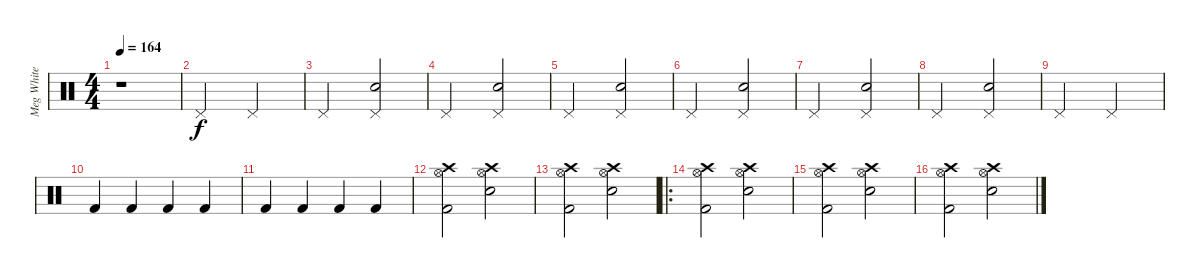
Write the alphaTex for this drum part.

\track ("Meg White" "Meg White") {instrument percussion}
\staff {score}
\articulation defaults
\ts (4 4)
\tempo 164
\clef neutral
\ks c
r.1{dy f} |
"Pedal Hi-Hat (hit)".2 "Pedal Hi-Hat (hit)".2 |
"Pedal Hi-Hat (hit)".2 ("Pedal Hi-Hat (hit)" "Electric Snare (hit)").2 |
"Pedal Hi-Hat (hit)".2 ("Pedal Hi-Hat (hit)" "Electric Snare (hit)").2 |
"Pedal Hi-Hat (hit)".2 ("Pedal Hi-Hat (hit)" "Electric Snare (hit)").2 |
"Pedal Hi-Hat (hit)".2 ("Pedal Hi-Hat (hit)" "Electric Snare (hit)").2 |
"Pedal Hi-Hat (hit)".2 ("Pedal Hi-Hat (hit)" "Electric Snare (hit)").2 |
"Pedal Hi-Hat (hit)".2 ("Pedal Hi-Hat (hit)" "Electric Snare (hit)").2 |
"Pedal Hi-Hat (hit)".2 "Pedal Hi-Hat (hit)".2 |
"Kick (hit) 2".4 "Kick (hit) 2".4 "Kick (hit) 2".4 "Kick (hit) 2".4 |
"Kick (hit) 2".4 "Kick (hit) 2".4 "Kick (hit) 2".4 "Kick (hit) 2".4 |
("Crash high (hit)" "Hi-Hat (open)" "Kick (hit) 2").2 ("Crash high (hit)" "Hi-Hat (open)" "Electric Snare (hit)").2 |
("Crash high (hit)" "Hi-Hat (open)" "Kick (hit) 2").2 ("Crash high (hit)" "Hi-Hat (open)" "Electric Snare (hit)").2 |
\ro
("Crash high (hit)" "Hi-Hat (open)" "Kick (hit) 2").2 ("Crash high (hit)" "Hi-Hat (open)" "Electric Snare (hit)").2 |
("Crash high (hit)" "Hi-Hat (open)" "Kick (hit) 2").2 ("Crash high (hit)" "Hi-Hat (open)" "Electric Snare (hit)").2 |
("Crash high (hit)" "Hi-Hat (open)" "Kick (hit) 2").2 ("Crash high (hit)" "Hi-Hat (open)" "Electric Snare (hit)").2
